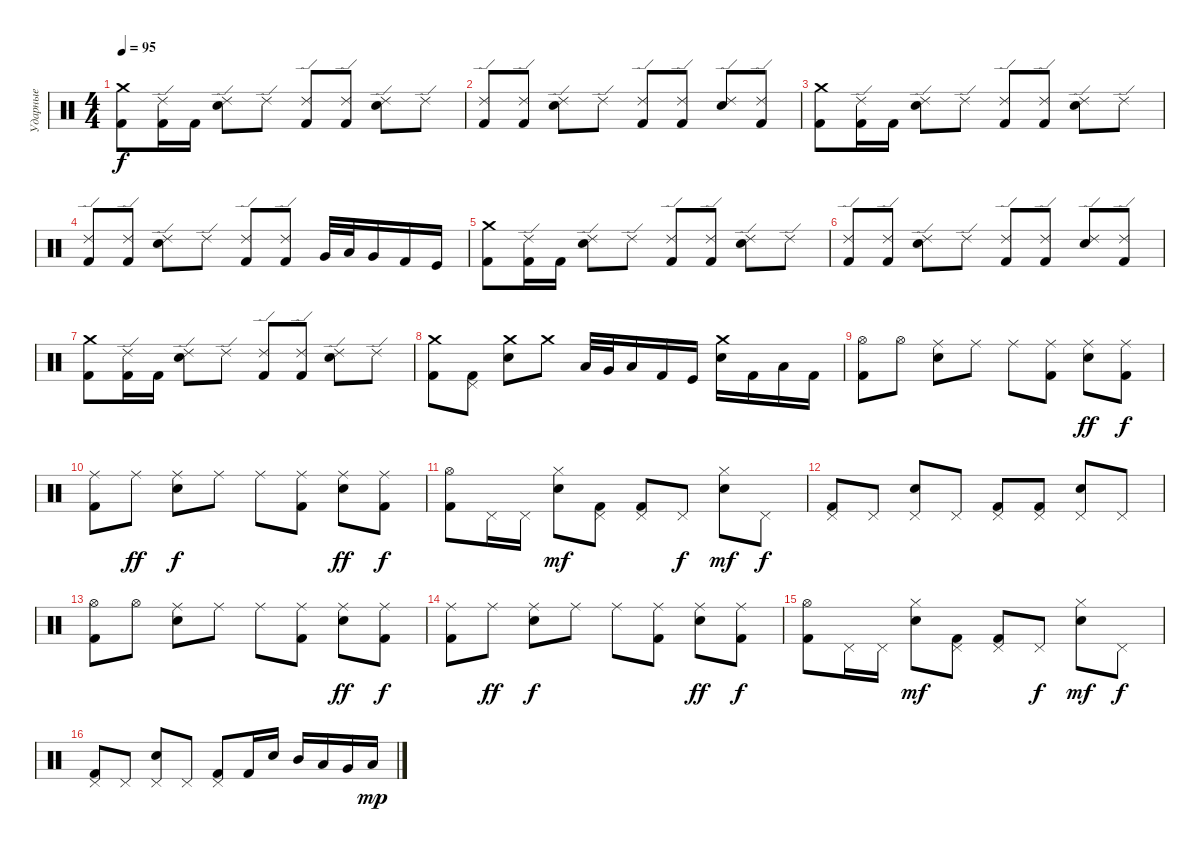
\track ("Ударные" "Ударные") {instrument percussion}
\staff {score}
\articulation defaults
\ts (4 4)
\tempo 95
\clef neutral
\ks c
("Kick (hit) 2" "Crash medium (hit)").8{dy f} ("Kick (hit) 2" "Ride (edge) 2").16 "Kick (hit) 2".16 ("Electric Snare (hit)" "Ride (edge) 2").8 "Ride (edge) 2".8 ("Kick (hit) 2" "Ride (edge) 2").8 ("Kick (hit) 2" "Ride (edge) 2").8 ("Electric Snare (hit)" "Ride (edge) 2").8 "Ride (edge) 2".8 |
("Kick (hit) 2" "Ride (edge) 2").8 ("Kick (hit) 2" "Ride (edge) 2").8 ("Electric Snare (hit)" "Ride (edge) 2").8 "Ride (edge) 2".8 ("Kick (hit) 2" "Ride (edge) 2").8 ("Kick (hit) 2" "Ride (edge) 2").8 ("Electric Snare (hit)" "Ride (edge) 2").8 ("Kick (hit) 2" "Ride (edge) 2").8 |
("Kick (hit) 2" "Crash medium (hit)").8 ("Kick (hit) 2" "Ride (edge) 2").16 "Kick (hit) 2".16 ("Electric Snare (hit)" "Ride (edge) 2").8 "Ride (edge) 2".8 ("Kick (hit) 2" "Ride (edge) 2").8 ("Kick (hit) 2" "Ride (edge) 2").8 ("Electric Snare (hit)" "Ride (edge) 2").8 "Ride (edge) 2".8 |
("Kick (hit) 2" "Ride (edge) 2").8 ("Kick (hit) 2" "Ride (edge) 2").8 ("Electric Snare (hit)" "Ride (edge) 2").8 "Ride (edge) 2".8 ("Kick (hit) 2" "Ride (edge) 2").8 ("Kick (hit) 2" "Ride (edge) 2").8 "Very Low Tom (hit)".32 "Low Tom (hit)".32 "Very Low Tom (hit)".16 "Kick (hit) 2".16 "Kick (hit)".16 |
("Kick (hit) 2" "Crash medium (hit)").8 ("Kick (hit) 2" "Ride (edge) 2").16 "Kick (hit) 2".16 ("Electric Snare (hit)" "Ride (edge) 2").8 "Ride (edge) 2".8 ("Kick (hit) 2" "Ride (edge) 2").8 ("Kick (hit) 2" "Ride (edge) 2").8 ("Electric Snare (hit)" "Ride (edge) 2").8 "Ride (edge) 2".8 |
("Kick (hit) 2" "Ride (edge) 2").8 ("Kick (hit) 2" "Ride (edge) 2").8 ("Electric Snare (hit)" "Ride (edge) 2").8 "Ride (edge) 2".8 ("Kick (hit) 2" "Ride (edge) 2").8 ("Kick (hit) 2" "Ride (edge) 2").8 ("Electric Snare (hit)" "Ride (edge) 2").8 ("Kick (hit) 2" "Ride (edge) 2").8 |
("Kick (hit) 2" "Crash medium (hit)").8 ("Kick (hit) 2" "Ride (edge) 2").16 "Kick (hit) 2".16 ("Electric Snare (hit)" "Ride (edge) 2").8 "Ride (edge) 2".8 ("Kick (hit) 2" "Ride (edge) 2").8 ("Kick (hit) 2" "Ride (edge) 2").8 ("Electric Snare (hit)" "Ride (edge) 2").8 "Ride (edge) 2".8 |
("Kick (hit) 2" "Crash medium (hit)").8 ("Kick (hit) 2" "Pedal Hi-Hat (hit)").8 ("Electric Snare (hit)" "Crash medium (hit)").8 "Crash medium (hit)".8 "Low Tom (hit)".32 "Very Low Tom (hit)".32 "Low Floor Tom (hit)".16 "Kick (hit) 2".16 "Kick (hit)".16 ("Crash medium (hit)" "Electric Snare (hit)").16 "Kick (hit) 2".16 "Low Tom (hit)".16 "Kick (hit) 2".16 |
("Kick (hit) 2" "Hi-Hat (open)").8 "Hi-Hat (open)".8 ("Ride (middle)" "Electric Snare (hit)").8 "Ride (middle)".8 "Ride (middle)".8 ("Kick (hit) 2" "Ride (middle)").8 ("Electric Snare (hit)" "Ride (middle)").8{dy ff} ("Kick (hit) 2" "Ride (middle)").8{dy f} |
("Kick (hit) 2" "Ride (middle)").8 "Ride (middle)".8{dy ff} ("Ride (middle)" "Electric Snare (hit)").8{dy f} "Ride (middle)".8 "Ride (middle)".8 ("Kick (hit) 2" "Ride (middle)").8 ("Electric Snare (hit)" "Ride (middle)").8{dy ff} ("Kick (hit) 2" "Ride (middle)").8{dy f} |
("Kick (hit) 2" "Hi-Hat (open)").8 "Pedal Hi-Hat (hit)".16 "Pedal Hi-Hat (hit)".16 ("Hi-Hat (closed)" "Electric Snare (hit)").8{dy mf} ("Pedal Hi-Hat (hit)" "Kick (hit) 2").8 ("Pedal Hi-Hat (hit)" "Kick (hit) 2").8 "Pedal Hi-Hat (hit)".8{dy f} ("Hi-Hat (closed)" "Electric Snare (hit)").8{dy mf} "Pedal Hi-Hat (hit)".8{dy f} |
("Pedal Hi-Hat (hit)" "Kick (hit) 2").8 "Pedal Hi-Hat (hit)".8 ("Pedal Hi-Hat (hit)" "Electric Snare (hit)").8 "Pedal Hi-Hat (hit)".8 ("Pedal Hi-Hat (hit)" "Kick (hit) 2").8 ("Pedal Hi-Hat (hit)" "Kick (hit) 2").8 ("Pedal Hi-Hat (hit)" "Electric Snare (hit)").8 "Pedal Hi-Hat (hit)".8 |
("Kick (hit) 2" "Hi-Hat (open)").8 "Hi-Hat (open)".8 ("Ride (middle)" "Electric Snare (hit)").8 "Ride (middle)".8 "Ride (middle)".8 ("Kick (hit) 2" "Ride (middle)").8 ("Electric Snare (hit)" "Ride (middle)").8{dy ff} ("Kick (hit) 2" "Ride (middle)").8{dy f} |
("Kick (hit) 2" "Ride (middle)").8 "Ride (middle)".8{dy ff} ("Ride (middle)" "Electric Snare (hit)").8{dy f} "Ride (middle)".8 "Ride (middle)".8 ("Kick (hit) 2" "Ride (middle)").8 ("Electric Snare (hit)" "Ride (middle)").8{dy ff} ("Kick (hit) 2" "Ride (middle)").8{dy f} |
("Kick (hit) 2" "Hi-Hat (open)").8 "Pedal Hi-Hat (hit)".16 "Pedal Hi-Hat (hit)".16 ("Hi-Hat (closed)" "Electric Snare (hit)").8{dy mf} ("Pedal Hi-Hat (hit)" "Kick (hit) 2").8 ("Pedal Hi-Hat (hit)" "Kick (hit) 2").8 "Pedal Hi-Hat (hit)".8{dy f} ("Hi-Hat (closed)" "Electric Snare (hit)").8{dy mf} "Pedal Hi-Hat (hit)".8{dy f} |
("Pedal Hi-Hat (hit)" "Kick (hit) 2").8 "Pedal Hi-Hat (hit)".8 ("Pedal Hi-Hat (hit)" "Electric Snare (hit)").8 "Pedal Hi-Hat (hit)".8 ("Pedal Hi-Hat (hit)" "Kick (hit) 2").8 "Kick (hit) 2".16 "Electric Snare (hit)".16 "Mid Tom (hit)".16 "Low Tom (hit)".16 "Very Low Tom (hit)".16 "Low Floor Tom (hit)".16{dy mp}
